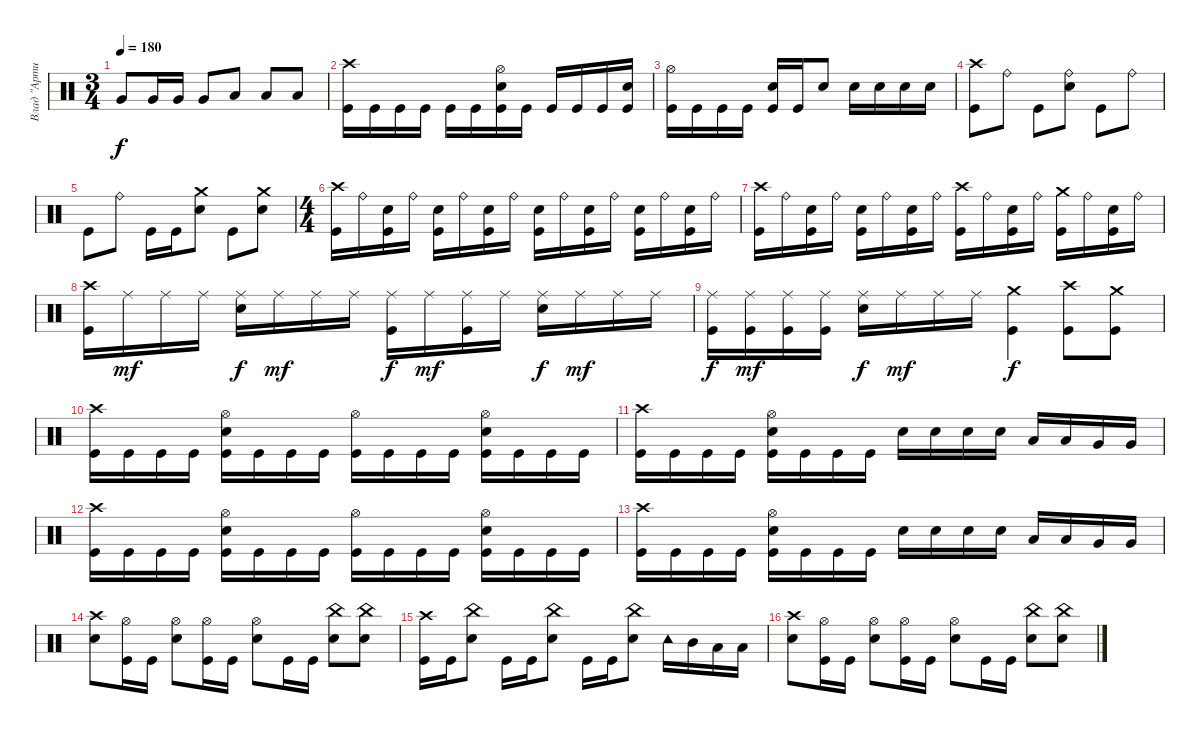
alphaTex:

\track ("Влад \"Артист\"" "Влад \"Арти") {instrument percussion}
\staff {score}
\articulation defaults
\ts (3 4)
\tempo 180
\clef neutral
\ks c "Very Low Tom (hit)".8{dy f} "Very Low Tom (hit)".16 "Very Low Tom (hit)".16 "Very Low Tom (hit)".8 "Low Floor Tom (hit)".8 "Low Floor Tom (hit)".8 "Low Floor Tom (hit)".8
|
("Crash high (hit)" "Kick (hit)").16 "Kick (hit)".16 "Kick (hit)".16 "Kick (hit)".16 "Kick (hit)".16 "Kick (hit)".16 ("Snare (hit) 2" "Hi-Hat (open)" "Kick (hit)").16 "Kick (hit)".16 "Kick (hit)".16 "Kick (hit)".16 "Kick (hit)".16 ("Snare (hit) 2" "Kick (hit)").16 |
("Kick (hit)" "Hi-Hat (open)").16 "Kick (hit)".16 "Kick (hit)".16 "Kick (hit)".16 ("Snare (hit) 2" "Kick (hit)").16 "Kick (hit)".16 "Snare (hit) 2".8 "Snare (hit) 2".16 "Snare (hit) 2".16 "Snare (hit) 2".16 "Snare (hit) 2".16 |
("Crash high (hit)" "Kick (hit)").8 "Ride (bell)".8 "Kick (hit)".8 ("Ride (bell)" "Snare (hit) 2").8 "Kick (hit)".8 "Ride (bell)".8 |
"Kick (hit)".8 "Ride (bell)".8 "Kick (hit)".16 "Kick (hit)".16 ("Crash medium (hit)" "Snare (hit) 2").8 "Kick (hit)".8 ("Snare (hit) 2" "Crash medium (hit)").8 |
\ts (4 4)
("Kick (hit)" "Crash high (hit)").16 "Ride (bell)".16 ("Snare (hit) 2" "Kick (hit)").16 "Ride (bell)".16 ("Snare (hit) 2" "Kick (hit)").16 "Ride (bell)".16 ("Snare (hit) 2" "Kick (hit)").16 "Ride (bell)".16 ("Kick (hit)" "Snare (hit) 2").16 "Ride (bell)".16 ("Snare (hit) 2" "Kick (hit)").16 "Ride (bell)".16 ("Snare (hit) 2" "Kick (hit)").16 "Ride (bell)".16 ("Snare (hit) 2" "Kick (hit)").16 "Ride (bell)".16 |
("Kick (hit)" "Crash high (hit)").16 "Ride (bell)".16 ("Snare (hit) 2" "Kick (hit)").16 "Ride (bell)".16 ("Snare (hit) 2" "Kick (hit)").16 "Ride (bell)".16 ("Snare (hit) 2" "Kick (hit)").16 "Ride (bell)".16 ("Crash high (hit)" "Kick (hit)").16 "Ride (bell)".16 ("Snare (hit) 2" "Kick (hit)").16 "Ride (bell)".16 ("Crash medium (hit)" "Kick (hit)").16 "Ride (bell)".16 ("Snare (hit) 2" "Kick (hit)").16 "Ride (bell)".16 |
("Kick (hit)" "Crash high (hit)").16 "Ride (middle)".16{dy mf} "Ride (middle)".16 "Ride (middle)".16 ("Snare (hit) 2" "Ride (middle)").16{dy f} "Ride (middle)".16{dy mf} "Ride (middle)".16 "Ride (middle)".16 ("Ride (middle)" "Kick (hit)").16{dy f} "Ride (middle)".16{dy mf} ("Kick (hit)" "Ride (middle)").16 "Ride (middle)".16 ("Ride (middle)" "Snare (hit) 2").16{dy f} "Ride (middle)".16{dy mf} "Ride (middle)".16 "Ride (middle)".16 |
("Ride (middle)" "Kick (hit)").16{dy f} ("Kick (hit)" "Ride (middle)").16{dy mf} ("Ride (middle)" "Kick (hit)").16 ("Kick (hit)" "Ride (middle)").16 ("Ride (middle)" "Snare (hit) 2").16{dy f} "Ride (middle)".16{dy mf} "Ride (middle)".16 "Ride (middle)".16 ("Crash medium (hit)" "Kick (hit)").4{dy f} ("Crash high (hit)" "Kick (hit)").8 ("Crash medium (hit)" "Kick (hit)").8 |
("Kick (hit)" "Crash high (hit)").16 "Kick (hit)".16 "Kick (hit)".16 "Kick (hit)".16 ("Kick (hit)" "Hi-Hat (open)" "Snare (hit) 2").16 "Kick (hit)".16 "Kick (hit)".16 "Kick (hit)".16 ("Hi-Hat (open)" "Kick (hit)").16 "Kick (hit)".16 "Kick (hit)".16 "Kick (hit)".16 ("Hi-Hat (open)" "Kick (hit)" "Snare (hit) 2").16 "Kick (hit)".16 "Kick (hit)".16 "Kick (hit)".16 |
("Kick (hit)" "Crash high (hit)").16 "Kick (hit)".16 "Kick (hit)".16 "Kick (hit)".16 ("Kick (hit)" "Hi-Hat (open)" "Snare (hit) 2").16 "Kick (hit)".16 "Kick (hit)".16 "Kick (hit)".16 "Snare (hit) 2".16 "Snare (hit) 2".16 "Snare (hit) 2".16 "Snare (hit) 2".16 "Low Tom (hit)".16 "Low Tom (hit)".16 "Very Low Tom (hit)".16 "Very Low Tom (hit)".16 |
("Kick (hit)" "Crash high (hit)").16 "Kick (hit)".16 "Kick (hit)".16 "Kick (hit)".16 ("Kick (hit)" "Hi-Hat (open)" "Snare (hit) 2").16 "Kick (hit)".16 "Kick (hit)".16 "Kick (hit)".16 ("Hi-Hat (open)" "Kick (hit)").16 "Kick (hit)".16 "Kick (hit)".16 "Kick (hit)".16 ("Hi-Hat (open)" "Kick (hit)" "Snare (hit) 2").16 "Kick (hit)".16 "Kick (hit)".16 "Kick (hit)".16 |
("Kick (hit)" "Crash high (hit)").16 "Kick (hit)".16 "Kick (hit)".16 "Kick (hit)".16 ("Kick (hit)" "Hi-Hat (open)" "Snare (hit) 2").16 "Kick (hit)".16 "Kick (hit)".16 "Kick (hit)".16 "Snare (hit) 2".16 "Snare (hit) 2".16 "Snare (hit) 2".16 "Snare (hit) 2".16 "Low Tom (hit)".16 "Low Tom (hit)".16 "Very Low Tom (hit)".16 "Very Low Tom (hit)".16 |
("Snare (hit) 2" "Crash high (hit)").8 ("Kick (hit)" "Hi-Hat (open)").16 "Kick (hit)".16 ("Hi-Hat (open)" "Snare (hit) 2").8 ("Kick (hit)" "Hi-Hat (open)").16 "Kick (hit)".16 ("Hi-Hat (open)" "Snare (hit) 2").8 "Kick (hit)".16 "Kick (hit)".16 ("China (hit)" "Snare (hit) 2").8 ("Snare (hit) 2" "China (hit)").8 |
("Crash high (hit)" "Kick (hit)").16 "Kick (hit)".16 ("Snare (hit) 2" "China (hit)").8 "Kick (hit)".16 "Kick (hit)".16 ("Snare (hit) 2" "China (hit)").8 "Kick (hit)".16 "Kick (hit)".16 ("Snare (hit) 2" "China (hit)").8 "Tambourine (hit)".16 "Mid Tom (hit)".16 "Low Tom (hit)".16 "Low Tom (hit)".16 |
("Snare (hit) 2" "Crash high (hit)").8 ("Kick (hit)" "Hi-Hat (open)").16 "Kick (hit)".16 ("Hi-Hat (open)" "Snare (hit) 2").8 ("Kick (hit)" "Hi-Hat (open)").16 "Kick (hit)".16 ("Hi-Hat (open)" "Snare (hit) 2").8 "Kick (hit)".16 "Kick (hit)".16 ("China (hit)" "Snare (hit) 2").8 ("Snare (hit) 2" "China (hit)").8
